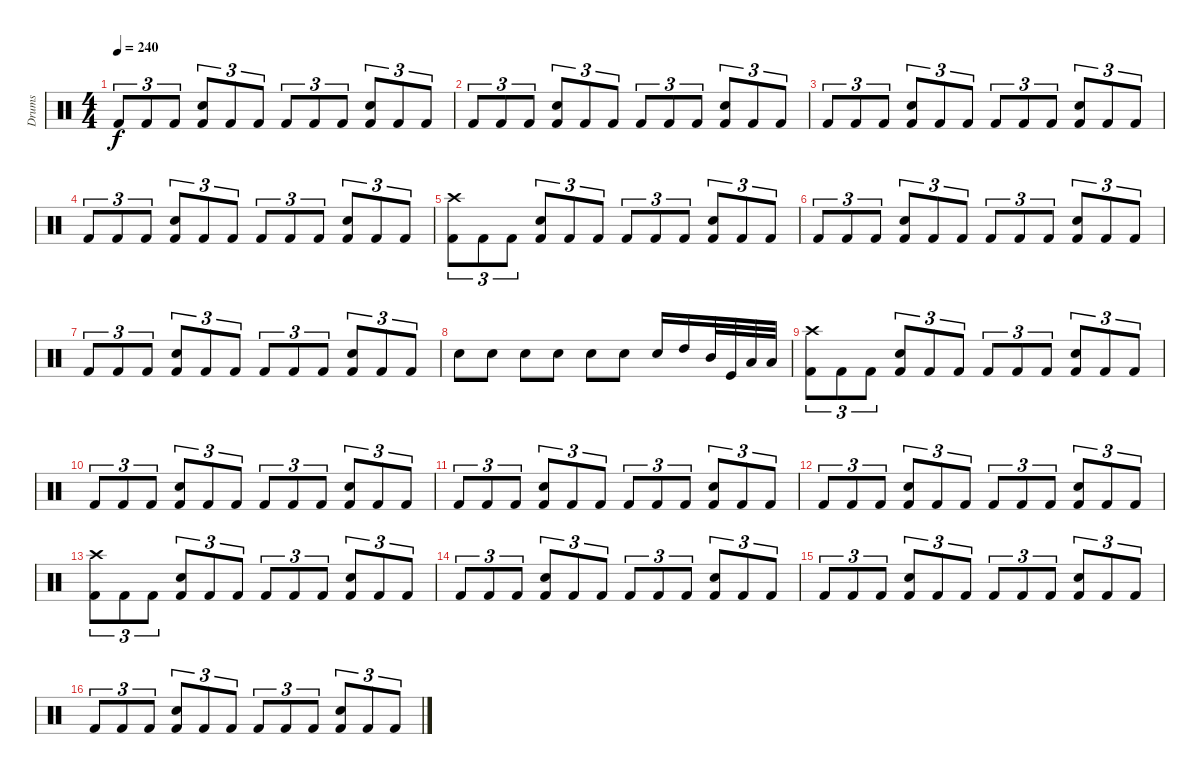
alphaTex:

\track ("Drums" "Drums") {instrument percussion}
\staff {score}
\articulation defaults
\ts (4 4)
\tempo 240
\clef neutral
\ks c "Kick (hit) 2".8{tu (3 2) dy f} "Kick (hit) 2".8{tu (3 2)} "Kick (hit) 2".8{tu (3 2)}
("Kick (hit) 2" "Electric Snare (hit)").8{tu (3 2)} "Kick (hit) 2".8{tu (3 2)} "Kick (hit) 2".8{tu (3 2)} "Kick (hit) 2".8{tu (3 2)} "Kick (hit) 2".8{tu (3 2)} "Kick (hit) 2".8{tu (3 2)} ("Kick (hit) 2" "Electric Snare (hit)").8{tu (3 2)} "Kick (hit) 2".8{tu (3 2)} "Kick (hit) 2".8{tu (3 2)} |
"Kick (hit) 2".8{tu (3 2)} "Kick (hit) 2".8{tu (3 2)} "Kick (hit) 2".8{tu (3 2)} ("Kick (hit) 2" "Electric Snare (hit)").8{tu (3 2)} "Kick (hit) 2".8{tu (3 2)} "Kick (hit) 2".8{tu (3 2)} "Kick (hit) 2".8{tu (3 2)} "Kick (hit) 2".8{tu (3 2)} "Kick (hit) 2".8{tu (3 2)} ("Kick (hit) 2" "Electric Snare (hit)").8{tu (3 2)} "Kick (hit) 2".8{tu (3 2)} "Kick (hit) 2".8{tu (3 2)} |
"Kick (hit) 2".8{tu (3 2)} "Kick (hit) 2".8{tu (3 2)} "Kick (hit) 2".8{tu (3 2)} ("Kick (hit) 2" "Electric Snare (hit)").8{tu (3 2)} "Kick (hit) 2".8{tu (3 2)} "Kick (hit) 2".8{tu (3 2)} "Kick (hit) 2".8{tu (3 2)} "Kick (hit) 2".8{tu (3 2)} "Kick (hit) 2".8{tu (3 2)} ("Kick (hit) 2" "Electric Snare (hit)").8{tu (3 2)} "Kick (hit) 2".8{tu (3 2)} "Kick (hit) 2".8{tu (3 2)} |
"Kick (hit) 2".8{tu (3 2)} "Kick (hit) 2".8{tu (3 2)} "Kick (hit) 2".8{tu (3 2)} ("Kick (hit) 2" "Electric Snare (hit)").8{tu (3 2)} "Kick (hit) 2".8{tu (3 2)} "Kick (hit) 2".8{tu (3 2)} "Kick (hit) 2".8{tu (3 2)} "Kick (hit) 2".8{tu (3 2)} "Kick (hit) 2".8{tu (3 2)} ("Kick (hit) 2" "Electric Snare (hit)").8{tu (3 2)} "Kick (hit) 2".8{tu (3 2)} "Kick (hit) 2".8{tu (3 2)} |
("Kick (hit) 2" "Crash high (hit)").8{tu (3 2)} "Kick (hit) 2".8{tu (3 2)} "Kick (hit) 2".8{tu (3 2)} ("Kick (hit) 2" "Electric Snare (hit)").8{tu (3 2)} "Kick (hit) 2".8{tu (3 2)} "Kick (hit) 2".8{tu (3 2)} "Kick (hit) 2".8{tu (3 2)} "Kick (hit) 2".8{tu (3 2)} "Kick (hit) 2".8{tu (3 2)} ("Kick (hit) 2" "Electric Snare (hit)").8{tu (3 2)} "Kick (hit) 2".8{tu (3 2)} "Kick (hit) 2".8{tu (3 2)} |
"Kick (hit) 2".8{tu (3 2)} "Kick (hit) 2".8{tu (3 2)} "Kick (hit) 2".8{tu (3 2)} ("Kick (hit) 2" "Electric Snare (hit)").8{tu (3 2)} "Kick (hit) 2".8{tu (3 2)} "Kick (hit) 2".8{tu (3 2)} "Kick (hit) 2".8{tu (3 2)} "Kick (hit) 2".8{tu (3 2)} "Kick (hit) 2".8{tu (3 2)} ("Kick (hit) 2" "Electric Snare (hit)").8{tu (3 2)} "Kick (hit) 2".8{tu (3 2)} "Kick (hit) 2".8{tu (3 2)} |
"Kick (hit) 2".8{tu (3 2)} "Kick (hit) 2".8{tu (3 2)} "Kick (hit) 2".8{tu (3 2)} ("Kick (hit) 2" "Electric Snare (hit)").8{tu (3 2)} "Kick (hit) 2".8{tu (3 2)} "Kick (hit) 2".8{tu (3 2)} "Kick (hit) 2".8{tu (3 2)} "Kick (hit) 2".8{tu (3 2)} "Kick (hit) 2".8{tu (3 2)} ("Kick (hit) 2" "Electric Snare (hit)").8{tu (3 2)} "Kick (hit) 2".8{tu (3 2)} "Kick (hit) 2".8{tu (3 2)} |
"Electric Snare (hit)".8 "Electric Snare (hit)".8 "Electric Snare (hit)".8 "Electric Snare (hit)".8 "Electric Snare (hit)".8 "Electric Snare (hit)".8 "Electric Snare (hit)".16 "High Tom (hit)".16 "Mid Tom (hit)".32 "Kick (hit)".32 "Low Floor Tom (hit)".32 "Low Floor Tom (hit)".32 |
("Kick (hit) 2" "Crash high (hit)").8{tu (3 2)} "Kick (hit) 2".8{tu (3 2)} "Kick (hit) 2".8{tu (3 2)} ("Kick (hit) 2" "Electric Snare (hit)").8{tu (3 2)} "Kick (hit) 2".8{tu (3 2)} "Kick (hit) 2".8{tu (3 2)} "Kick (hit) 2".8{tu (3 2)} "Kick (hit) 2".8{tu (3 2)} "Kick (hit) 2".8{tu (3 2)} ("Kick (hit) 2" "Electric Snare (hit)").8{tu (3 2)} "Kick (hit) 2".8{tu (3 2)} "Kick (hit) 2".8{tu (3 2)} |
"Kick (hit) 2".8{tu (3 2)} "Kick (hit) 2".8{tu (3 2)} "Kick (hit) 2".8{tu (3 2)} ("Kick (hit) 2" "Electric Snare (hit)").8{tu (3 2)} "Kick (hit) 2".8{tu (3 2)} "Kick (hit) 2".8{tu (3 2)} "Kick (hit) 2".8{tu (3 2)} "Kick (hit) 2".8{tu (3 2)} "Kick (hit) 2".8{tu (3 2)} ("Kick (hit) 2" "Electric Snare (hit)").8{tu (3 2)} "Kick (hit) 2".8{tu (3 2)} "Kick (hit) 2".8{tu (3 2)} |
"Kick (hit) 2".8{tu (3 2)} "Kick (hit) 2".8{tu (3 2)} "Kick (hit) 2".8{tu (3 2)} ("Kick (hit) 2" "Electric Snare (hit)").8{tu (3 2)} "Kick (hit) 2".8{tu (3 2)} "Kick (hit) 2".8{tu (3 2)} "Kick (hit) 2".8{tu (3 2)} "Kick (hit) 2".8{tu (3 2)} "Kick (hit) 2".8{tu (3 2)} ("Kick (hit) 2" "Electric Snare (hit)").8{tu (3 2)} "Kick (hit) 2".8{tu (3 2)} "Kick (hit) 2".8{tu (3 2)} |
"Kick (hit) 2".8{tu (3 2)} "Kick (hit) 2".8{tu (3 2)} "Kick (hit) 2".8{tu (3 2)} ("Kick (hit) 2" "Electric Snare (hit)").8{tu (3 2)} "Kick (hit) 2".8{tu (3 2)} "Kick (hit) 2".8{tu (3 2)} "Kick (hit) 2".8{tu (3 2)} "Kick (hit) 2".8{tu (3 2)} "Kick (hit) 2".8{tu (3 2)} ("Kick (hit) 2" "Electric Snare (hit)").8{tu (3 2)} "Kick (hit) 2".8{tu (3 2)} "Kick (hit) 2".8{tu (3 2)} |
("Kick (hit) 2" "Crash high (hit)").8{tu (3 2)} "Kick (hit) 2".8{tu (3 2)} "Kick (hit) 2".8{tu (3 2)} ("Kick (hit) 2" "Electric Snare (hit)").8{tu (3 2)} "Kick (hit) 2".8{tu (3 2)} "Kick (hit) 2".8{tu (3 2)} "Kick (hit) 2".8{tu (3 2)} "Kick (hit) 2".8{tu (3 2)} "Kick (hit) 2".8{tu (3 2)} ("Kick (hit) 2" "Electric Snare (hit)").8{tu (3 2)} "Kick (hit) 2".8{tu (3 2)} "Kick (hit) 2".8{tu (3 2)} |
"Kick (hit) 2".8{tu (3 2)} "Kick (hit) 2".8{tu (3 2)} "Kick (hit) 2".8{tu (3 2)} ("Kick (hit) 2" "Electric Snare (hit)").8{tu (3 2)} "Kick (hit) 2".8{tu (3 2)} "Kick (hit) 2".8{tu (3 2)} "Kick (hit) 2".8{tu (3 2)} "Kick (hit) 2".8{tu (3 2)} "Kick (hit) 2".8{tu (3 2)} ("Kick (hit) 2" "Electric Snare (hit)").8{tu (3 2)} "Kick (hit) 2".8{tu (3 2)} "Kick (hit) 2".8{tu (3 2)} |
"Kick (hit) 2".8{tu (3 2)} "Kick (hit) 2".8{tu (3 2)} "Kick (hit) 2".8{tu (3 2)} ("Kick (hit) 2" "Electric Snare (hit)").8{tu (3 2)} "Kick (hit) 2".8{tu (3 2)} "Kick (hit) 2".8{tu (3 2)} "Kick (hit) 2".8{tu (3 2)} "Kick (hit) 2".8{tu (3 2)} "Kick (hit) 2".8{tu (3 2)} ("Kick (hit) 2" "Electric Snare (hit)").8{tu (3 2)} "Kick (hit) 2".8{tu (3 2)} "Kick (hit) 2".8{tu (3 2)} |
"Kick (hit) 2".8{tu (3 2)} "Kick (hit) 2".8{tu (3 2)} "Kick (hit) 2".8{tu (3 2)} ("Kick (hit) 2" "Electric Snare (hit)").8{tu (3 2)} "Kick (hit) 2".8{tu (3 2)} "Kick (hit) 2".8{tu (3 2)} "Kick (hit) 2".8{tu (3 2)} "Kick (hit) 2".8{tu (3 2)} "Kick (hit) 2".8{tu (3 2)} ("Kick (hit) 2" "Electric Snare (hit)").8{tu (3 2)} "Kick (hit) 2".8{tu (3 2)} "Kick (hit) 2".8{tu (3 2)}
